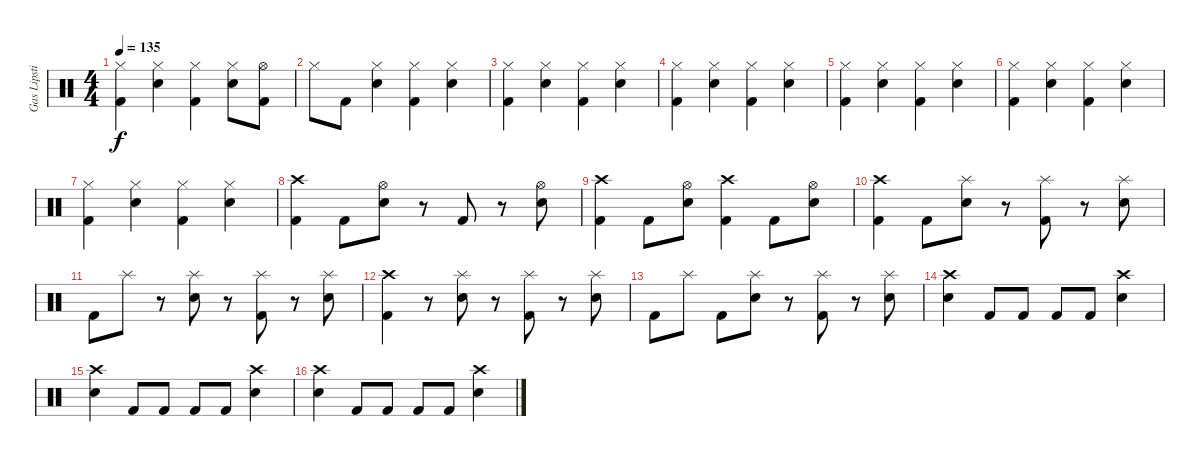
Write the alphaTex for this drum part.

\track ("Gas Lipstick" "Gas Lipsti") {instrument percussion}
\staff {score}
\articulation defaults
\ts (4 4)
\tempo 135
\clef neutral
\ks c
("Hi-Hat (closed)" "Kick (hit) 2").4{dy f} ("Hi-Hat (closed)" "Electric Snare (hit)").4 ("Kick (hit) 2" "Hi-Hat (closed)").4 ("Electric Snare (hit)" "Hi-Hat (closed)").8 ("Kick (hit) 2" "Hi-Hat (open)").8 |
"Hi-Hat (closed)".8 "Kick (hit) 2".8 ("Hi-Hat (closed)" "Electric Snare (hit)").4 ("Hi-Hat (closed)" "Kick (hit) 2").4 ("Hi-Hat (closed)" "Electric Snare (hit)").4 |
("Hi-Hat (closed)" "Kick (hit) 2").4 ("Hi-Hat (closed)" "Electric Snare (hit)").4 ("Kick (hit) 2" "Hi-Hat (closed)").4 ("Electric Snare (hit)" "Hi-Hat (closed)").4 |
("Hi-Hat (closed)" "Kick (hit) 2").4 ("Hi-Hat (closed)" "Electric Snare (hit)").4 ("Hi-Hat (closed)" "Kick (hit) 2").4 ("Hi-Hat (closed)" "Electric Snare (hit)").4 |
("Hi-Hat (closed)" "Kick (hit) 2").4 ("Hi-Hat (closed)" "Electric Snare (hit)").4 ("Kick (hit) 2" "Hi-Hat (closed)").4 ("Electric Snare (hit)" "Hi-Hat (closed)").4 |
("Hi-Hat (closed)" "Kick (hit) 2").4 ("Hi-Hat (closed)" "Electric Snare (hit)").4 ("Hi-Hat (closed)" "Kick (hit) 2").4 ("Hi-Hat (closed)" "Electric Snare (hit)").4 |
("Hi-Hat (closed)" "Kick (hit) 2").4 ("Hi-Hat (closed)" "Electric Snare (hit)").4 ("Kick (hit) 2" "Hi-Hat (closed)").4 ("Electric Snare (hit)" "Hi-Hat (closed)").4 |
("Kick (hit) 2" "Crash high (hit)").4 "Kick (hit) 2".8 ("Hi-Hat (open)" "Electric Snare (hit)").8 r.8 "Kick (hit) 2".8 r.8 ("Hi-Hat (open)" "Electric Snare (hit)").8 |
("Kick (hit) 2" "Crash high (hit)").4 "Kick (hit) 2".8 ("Hi-Hat (open)" "Electric Snare (hit)").8 ("Crash high (hit)" "Kick (hit) 2").4 "Kick (hit) 2".8 ("Electric Snare (hit)" "Hi-Hat (open)").8 |
("Crash high (hit)" "Kick (hit) 2").4 "Kick (hit) 2".8 ("Splash (hit)" "Electric Snare (hit)").8 r.8 ("Splash (hit)" "Kick (hit) 2").8 r.8 ("Splash (hit)" "Electric Snare (hit)").8 |
"Kick (hit) 2".8 "Splash (hit)".8 r.8 ("Splash (hit)" "Electric Snare (hit)").8 r.8 ("Splash (hit)" "Kick (hit) 2").8 r.8 ("Splash (hit)" "Electric Snare (hit)").8 |
("Crash high (hit)" "Kick (hit) 2").4 r.8 ("Splash (hit)" "Electric Snare (hit)").8 r.8 ("Splash (hit)" "Kick (hit) 2").8 r.8 ("Splash (hit)" "Electric Snare (hit)").8 |
"Kick (hit) 2".8 "Splash (hit)".8 "Kick (hit) 2".8 ("Splash (hit)" "Electric Snare (hit)").8 r.8 ("Splash (hit)" "Kick (hit) 2").8 r.8 ("Splash (hit)" "Electric Snare (hit)").8 |
("Crash high (hit)" "Electric Snare (hit)").4 "Kick (hit) 2".8 "Kick (hit) 2".8 "Kick (hit) 2".8 "Kick (hit) 2".8 ("Crash high (hit)" "Electric Snare (hit)").4 |
("Crash high (hit)" "Electric Snare (hit)").4 "Kick (hit) 2".8 "Kick (hit) 2".8 "Kick (hit) 2".8 "Kick (hit) 2".8 ("Crash high (hit)" "Electric Snare (hit)").4 |
("Crash high (hit)" "Electric Snare (hit)").4 "Kick (hit) 2".8 "Kick (hit) 2".8 "Kick (hit) 2".8 "Kick (hit) 2".8 ("Crash high (hit)" "Electric Snare (hit)").4
